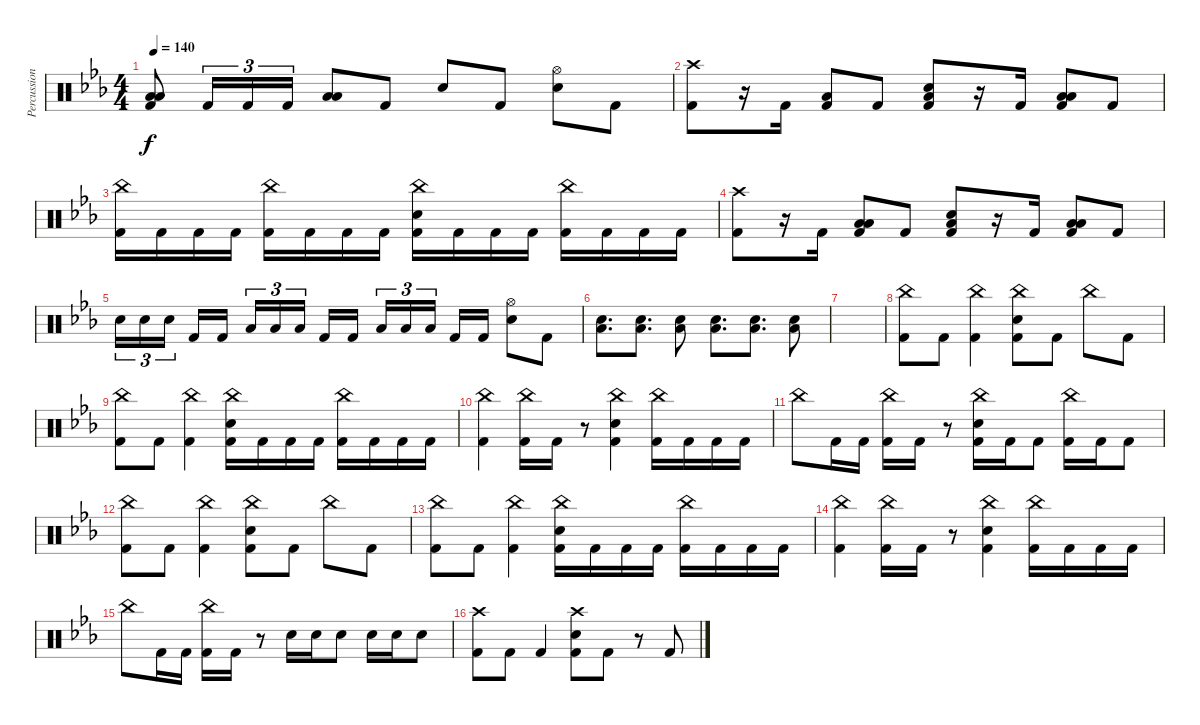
\track ("Percussion" "Percussion") {instrument percussion}
\staff {score}
\articulation defaults
\ts (4 4)
\tempo 140
\clef neutral
\ks cminor
("Low Tom (hit)" "Low Floor Tom (hit)" "Kick (hit) 2").8{dy f} "Kick (hit) 2".16{tu (3 2)} "Kick (hit) 2".16{tu (3 2)} "Kick (hit) 2".16{tu (3 2)} ("Low Tom (hit)" "Low Floor Tom (hit)").8 "Kick (hit) 2".8 "Electric Snare (hit)".8 "Kick (hit) 2".8 ("Hi-Hat (open)" "Electric Snare (hit)").8 "Kick (hit) 2".8 |
("Crash high (hit)" "Kick (hit) 2").8 r.16 "Kick (hit) 2".16 ("Low Floor Tom (hit)" "Kick (hit) 2").8 "Kick (hit) 2".8 ("Low Floor Tom (hit)" "Electric Snare (hit)" "Kick (hit) 2").8 r.16 "Kick (hit) 2".16 ("Low Tom (hit)" "Low Floor Tom (hit)" "Kick (hit) 2").8 "Kick (hit) 2".8 |
("China (hit)" "Kick (hit) 2").16 "Kick (hit) 2".16 "Kick (hit) 2".16 "Kick (hit) 2".16 ("China (hit)" "Kick (hit) 2").16 "Kick (hit) 2".16 "Kick (hit) 2".16 "Kick (hit) 2".16 ("China (hit)" "Electric Snare (hit)" "Kick (hit) 2").16 "Kick (hit) 2".16 "Kick (hit) 2".16 "Kick (hit) 2".16 ("China (hit)" "Kick (hit) 2").16 "Kick (hit) 2".16 "Kick (hit) 2".16 "Kick (hit) 2".16 |
("Crash high (hit)" "Kick (hit) 2").8 r.16 "Kick (hit) 2".16 ("Low Tom (hit)" "Low Floor Tom (hit)" "Kick (hit) 2").8 "Kick (hit) 2".8 ("Low Floor Tom (hit)" "Electric Snare (hit)" "Kick (hit) 2").8 r.16 "Kick (hit) 2".16 ("Low Tom (hit)" "Low Floor Tom (hit)" "Kick (hit) 2").8 "Kick (hit) 2".8 |
"Electric Snare (hit)".16{tu (3 2)} "Electric Snare (hit)".16{tu (3 2)} "Electric Snare (hit)".16{tu (3 2) beam splitsecondary} "Kick (hit) 2".16 "Kick (hit) 2".16 "Low Tom (hit)".16{tu (3 2)} "Low Tom (hit)".16{tu (3 2)} "Low Tom (hit)".16{tu (3 2) beam splitsecondary} "Kick (hit) 2".16 "Kick (hit) 2".16 "Low Floor Tom (hit)".16{tu (3 2)} "Low Floor Tom (hit)".16{tu (3 2)} "Low Floor Tom (hit)".16{tu (3 2) beam splitsecondary} "Kick (hit) 2".16 "Kick (hit) 2".16 ("Hi-Hat (open)" "Electric Snare (hit)").8 "Kick (hit) 2".8 |
("Low Floor Tom (hit)" "Electric Snare (hit)").8{d} ("Low Floor Tom (hit)" "Electric Snare (hit)").8{d} ("Low Floor Tom (hit)" "Electric Snare (hit)").8 ("Low Floor Tom (hit)" "Electric Snare (hit)").8{d} ("Low Floor Tom (hit)" "Electric Snare (hit)").8{d} ("Low Floor Tom (hit)" "Electric Snare (hit)").8 |
|
("China (hit)" "Kick (hit) 2").8 "Kick (hit) 2".8 ("China (hit)" "Kick (hit) 2").4 ("China (hit)" "Electric Snare (hit)" "Kick (hit) 2").8 "Kick (hit) 2".8 "China (hit)".8 "Kick (hit) 2".8 |
("China (hit)" "Kick (hit) 2").8 "Kick (hit) 2".8 ("China (hit)" "Kick (hit) 2").4 ("China (hit)" "Electric Snare (hit)" "Kick (hit) 2").16 "Kick (hit) 2".16 "Kick (hit) 2".16 "Kick (hit) 2".16 ("China (hit)" "Kick (hit) 2").16 "Kick (hit) 2".16 "Kick (hit) 2".16 "Kick (hit) 2".16 |
("China (hit)" "Kick (hit) 2").4 ("China (hit)" "Kick (hit) 2").16 "Kick (hit) 2".16 r.8 ("China (hit)" "Electric Snare (hit)" "Kick (hit) 2").4 ("China (hit)" "Kick (hit) 2").16 "Kick (hit) 2".16 "Kick (hit) 2".16 "Kick (hit) 2".16 |
"China (hit)".8 "Kick (hit) 2".16 "Kick (hit) 2".16 ("China (hit)" "Kick (hit) 2").16 "Kick (hit) 2".16 r.8 ("China (hit)" "Electric Snare (hit)" "Kick (hit) 2").16 "Kick (hit) 2".16 "Kick (hit) 2".8 ("China (hit)" "Kick (hit) 2").16 "Kick (hit) 2".16 "Kick (hit) 2".8 |
("China (hit)" "Kick (hit) 2").8 "Kick (hit) 2".8 ("China (hit)" "Kick (hit) 2").4 ("China (hit)" "Electric Snare (hit)" "Kick (hit) 2").8 "Kick (hit) 2".8 "China (hit)".8 "Kick (hit) 2".8 |
("China (hit)" "Kick (hit) 2").8 "Kick (hit) 2".8 ("China (hit)" "Kick (hit) 2").4 ("China (hit)" "Electric Snare (hit)" "Kick (hit) 2").16 "Kick (hit) 2".16 "Kick (hit) 2".16 "Kick (hit) 2".16 ("China (hit)" "Kick (hit) 2").16 "Kick (hit) 2".16 "Kick (hit) 2".16 "Kick (hit) 2".16 |
("China (hit)" "Kick (hit) 2").4 ("China (hit)" "Kick (hit) 2").16 "Kick (hit) 2".16 r.8 ("China (hit)" "Electric Snare (hit)" "Kick (hit) 2").4 ("China (hit)" "Kick (hit) 2").16 "Kick (hit) 2".16 "Kick (hit) 2".16 "Kick (hit) 2".16 |
"China (hit)".8 "Kick (hit) 2".16 "Kick (hit) 2".16 ("China (hit)" "Kick (hit) 2").16 "Kick (hit) 2".16 r.8 "Electric Snare (hit)".16 "Electric Snare (hit)".16 "Electric Snare (hit)".8 "Electric Snare (hit)".16 "Electric Snare (hit)".16 "Electric Snare (hit)".8 |
("Crash high (hit)" "Kick (hit) 2").8 "Kick (hit) 2".8 "Kick (hit) 2".4 ("Crash high (hit)" "Electric Snare (hit)" "Kick (hit) 2").8 "Kick (hit) 2".8 r.8 "Kick (hit) 2".8
